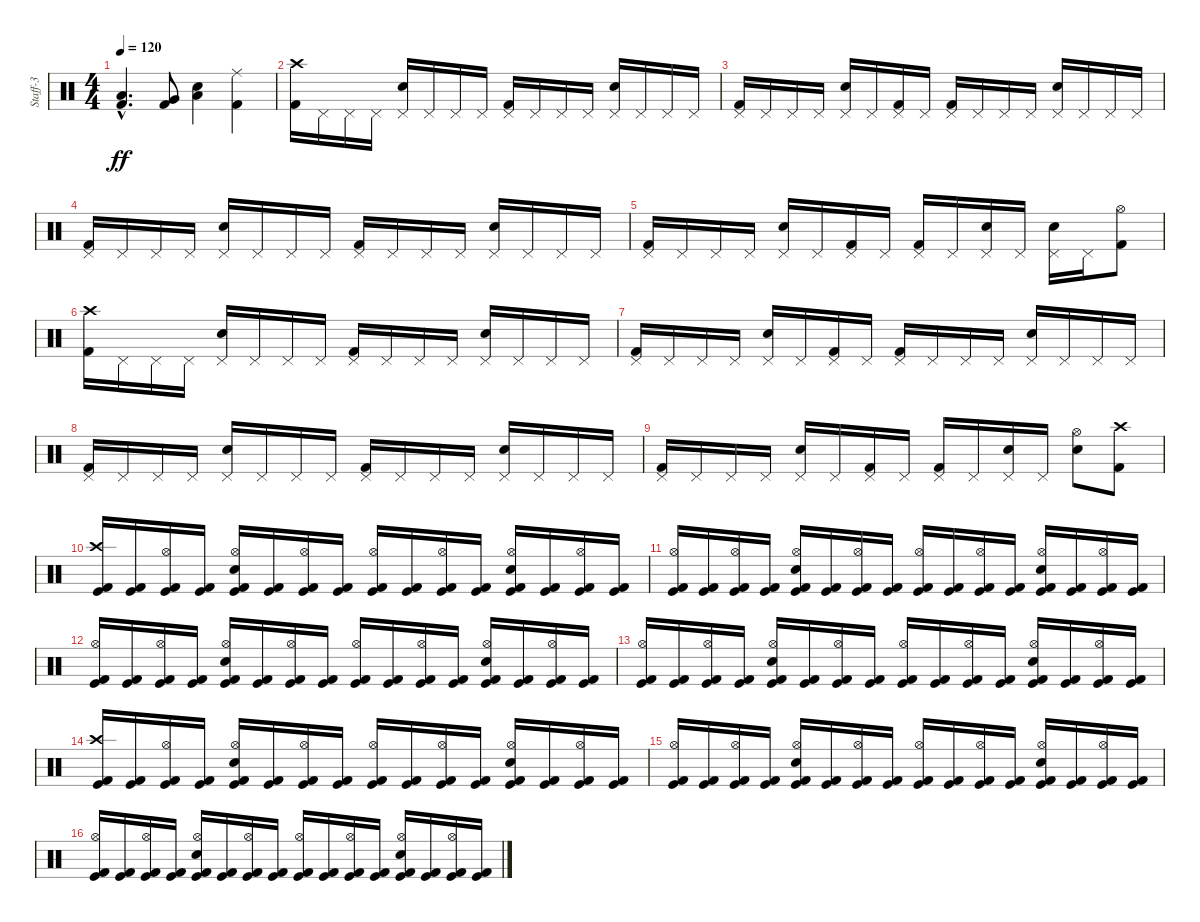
\track ("Staff-3" "Staff-3") {instrument percussion}
\staff {score}
\articulation defaults
\ts (4 4)
\tempo 120
\clef neutral
\ks c
("Kick (hit) 2"{hac} "Low Tom (hit)"{hac}).4{d dy ff balance 8} ("Kick (hit) 2" "Very Low Tom (hit)").8{balance 1} ("Snare (hit) 2" "Low Floor Tom (hit)").4{balance 15} ("Kick (hit) 2" "Ride (middle)").4{balance 1} |
("Kick (hit) 2" "Crash high (hit)").16{balance 8} "Pedal Hi-Hat (hit)".16 "Pedal Hi-Hat (hit)".16 "Pedal Hi-Hat (hit)".16 ("Snare (hit) 2" "Pedal Hi-Hat (hit)").16 "Pedal Hi-Hat (hit)".16 "Pedal Hi-Hat (hit)".16 "Pedal Hi-Hat (hit)".16 ("Kick (hit) 2" "Pedal Hi-Hat (hit)").16 "Pedal Hi-Hat (hit)".16 "Pedal Hi-Hat (hit)".16 "Pedal Hi-Hat (hit)".16 ("Snare (hit) 2" "Pedal Hi-Hat (hit)").16 "Pedal Hi-Hat (hit)".16 "Pedal Hi-Hat (hit)".16 "Pedal Hi-Hat (hit)".16 |
("Kick (hit) 2" "Pedal Hi-Hat (hit)").16 "Pedal Hi-Hat (hit)".16 "Pedal Hi-Hat (hit)".16 "Pedal Hi-Hat (hit)".16 ("Snare (hit) 2" "Pedal Hi-Hat (hit)").16 "Pedal Hi-Hat (hit)".16 ("Kick (hit) 2" "Pedal Hi-Hat (hit)").16 "Pedal Hi-Hat (hit)".16 ("Kick (hit) 2" "Pedal Hi-Hat (hit)").16 "Pedal Hi-Hat (hit)".16 "Pedal Hi-Hat (hit)".16 "Pedal Hi-Hat (hit)".16 ("Snare (hit) 2" "Pedal Hi-Hat (hit)").16 "Pedal Hi-Hat (hit)".16 "Pedal Hi-Hat (hit)".16 "Pedal Hi-Hat (hit)".16 |
("Kick (hit) 2" "Pedal Hi-Hat (hit)").16 "Pedal Hi-Hat (hit)".16 "Pedal Hi-Hat (hit)".16 "Pedal Hi-Hat (hit)".16 ("Snare (hit) 2" "Pedal Hi-Hat (hit)").16 "Pedal Hi-Hat (hit)".16 "Pedal Hi-Hat (hit)".16 "Pedal Hi-Hat (hit)".16 ("Kick (hit) 2" "Pedal Hi-Hat (hit)").16 "Pedal Hi-Hat (hit)".16 "Pedal Hi-Hat (hit)".16 "Pedal Hi-Hat (hit)".16 ("Snare (hit) 2" "Pedal Hi-Hat (hit)").16 "Pedal Hi-Hat (hit)".16 "Pedal Hi-Hat (hit)".16 "Pedal Hi-Hat (hit)".16 |
("Kick (hit) 2" "Pedal Hi-Hat (hit)").16 "Pedal Hi-Hat (hit)".16 "Pedal Hi-Hat (hit)".16 "Pedal Hi-Hat (hit)".16 ("Snare (hit) 2" "Pedal Hi-Hat (hit)").16 "Pedal Hi-Hat (hit)".16 ("Kick (hit) 2" "Pedal Hi-Hat (hit)").16 "Pedal Hi-Hat (hit)".16 ("Kick (hit) 2" "Pedal Hi-Hat (hit)").16 "Pedal Hi-Hat (hit)".16 ("Snare (hit) 2" "Pedal Hi-Hat (hit)").16 "Pedal Hi-Hat (hit)".16 ("Snare (hit) 2" "Pedal Hi-Hat (hit)").16 "Pedal Hi-Hat (hit)".16 ("Kick (hit) 2" "Hi-Hat (open)").8 |
("Kick (hit) 2" "Crash high (hit)").16 "Pedal Hi-Hat (hit)".16 "Pedal Hi-Hat (hit)".16 "Pedal Hi-Hat (hit)".16 ("Snare (hit) 2" "Pedal Hi-Hat (hit)").16 "Pedal Hi-Hat (hit)".16 "Pedal Hi-Hat (hit)".16 "Pedal Hi-Hat (hit)".16 ("Kick (hit) 2" "Pedal Hi-Hat (hit)").16 "Pedal Hi-Hat (hit)".16 "Pedal Hi-Hat (hit)".16 "Pedal Hi-Hat (hit)".16 ("Snare (hit) 2" "Pedal Hi-Hat (hit)").16 "Pedal Hi-Hat (hit)".16 "Pedal Hi-Hat (hit)".16 "Pedal Hi-Hat (hit)".16 |
("Kick (hit) 2" "Pedal Hi-Hat (hit)").16 "Pedal Hi-Hat (hit)".16 "Pedal Hi-Hat (hit)".16 "Pedal Hi-Hat (hit)".16 ("Snare (hit) 2" "Pedal Hi-Hat (hit)").16 "Pedal Hi-Hat (hit)".16 ("Kick (hit) 2" "Pedal Hi-Hat (hit)").16 "Pedal Hi-Hat (hit)".16 ("Kick (hit) 2" "Pedal Hi-Hat (hit)").16 "Pedal Hi-Hat (hit)".16 "Pedal Hi-Hat (hit)".16 "Pedal Hi-Hat (hit)".16 ("Snare (hit) 2" "Pedal Hi-Hat (hit)").16 "Pedal Hi-Hat (hit)".16 "Pedal Hi-Hat (hit)".16 "Pedal Hi-Hat (hit)".16 |
("Kick (hit) 2" "Pedal Hi-Hat (hit)").16 "Pedal Hi-Hat (hit)".16 "Pedal Hi-Hat (hit)".16 "Pedal Hi-Hat (hit)".16 ("Snare (hit) 2" "Pedal Hi-Hat (hit)").16 "Pedal Hi-Hat (hit)".16 "Pedal Hi-Hat (hit)".16 "Pedal Hi-Hat (hit)".16 ("Kick (hit) 2" "Pedal Hi-Hat (hit)").16 "Pedal Hi-Hat (hit)".16 "Pedal Hi-Hat (hit)".16 "Pedal Hi-Hat (hit)".16 ("Snare (hit) 2" "Pedal Hi-Hat (hit)").16 "Pedal Hi-Hat (hit)".16 "Pedal Hi-Hat (hit)".16 "Pedal Hi-Hat (hit)".16 |
("Kick (hit) 2" "Pedal Hi-Hat (hit)").16 "Pedal Hi-Hat (hit)".16 "Pedal Hi-Hat (hit)".16 "Pedal Hi-Hat (hit)".16 ("Snare (hit) 2" "Pedal Hi-Hat (hit)").16 "Pedal Hi-Hat (hit)".16 ("Kick (hit) 2" "Pedal Hi-Hat (hit)").16 "Pedal Hi-Hat (hit)".16 ("Kick (hit) 2" "Pedal Hi-Hat (hit)").16 "Pedal Hi-Hat (hit)".16 ("Snare (hit) 2" "Pedal Hi-Hat (hit)").16 "Pedal Hi-Hat (hit)".16 ("Snare (hit) 2" "Hi-Hat (open)").8 ("Kick (hit) 2" "Crash high (hit)").8 |
("Kick (hit)" "Kick (hit) 2" "Crash high (hit)").16 ("Kick (hit)" "Kick (hit) 2").16 ("Kick (hit)" "Kick (hit) 2" "Hi-Hat (open)").16 ("Kick (hit)" "Kick (hit) 2").16 ("Kick (hit)" "Kick (hit) 2" "Snare (hit) 2" "Hi-Hat (open)").16 ("Kick (hit)" "Kick (hit) 2").16 ("Kick (hit)" "Kick (hit) 2" "Hi-Hat (open)").16 ("Kick (hit)" "Kick (hit) 2").16 ("Kick (hit)" "Kick (hit) 2" "Hi-Hat (open)").16 ("Kick (hit)" "Kick (hit) 2").16 ("Kick (hit)" "Kick (hit) 2" "Hi-Hat (open)").16 ("Kick (hit)" "Kick (hit) 2").16 ("Kick (hit)" "Kick (hit) 2" "Snare (hit) 2" "Hi-Hat (open)").16 ("Kick (hit)" "Kick (hit) 2").16 ("Kick (hit)" "Kick (hit) 2" "Hi-Hat (open)").16 ("Kick (hit)" "Kick (hit) 2").16 |
("Kick (hit)" "Kick (hit) 2" "Hi-Hat (open)").16 ("Kick (hit)" "Kick (hit) 2").16 ("Kick (hit)" "Kick (hit) 2" "Hi-Hat (open)").16 ("Kick (hit)" "Kick (hit) 2").16 ("Kick (hit)" "Kick (hit) 2" "Snare (hit) 2" "Hi-Hat (open)").16 ("Kick (hit)" "Kick (hit) 2").16 ("Kick (hit)" "Kick (hit) 2" "Hi-Hat (open)").16 ("Kick (hit)" "Kick (hit) 2").16 ("Kick (hit)" "Kick (hit) 2" "Hi-Hat (open)").16 ("Kick (hit)" "Kick (hit) 2").16 ("Kick (hit)" "Kick (hit) 2" "Hi-Hat (open)").16 ("Kick (hit)" "Kick (hit) 2").16 ("Kick (hit)" "Kick (hit) 2" "Snare (hit) 2" "Hi-Hat (open)").16 ("Kick (hit)" "Kick (hit) 2").16 ("Kick (hit)" "Kick (hit) 2" "Hi-Hat (open)").16 ("Kick (hit)" "Kick (hit) 2").16 |
("Kick (hit)" "Kick (hit) 2" "Hi-Hat (open)").16 ("Kick (hit)" "Kick (hit) 2").16 ("Kick (hit)" "Kick (hit) 2" "Hi-Hat (open)").16 ("Kick (hit)" "Kick (hit) 2").16 ("Kick (hit)" "Kick (hit) 2" "Snare (hit) 2" "Hi-Hat (open)").16 ("Kick (hit)" "Kick (hit) 2").16 ("Kick (hit)" "Kick (hit) 2" "Hi-Hat (open)").16 ("Kick (hit)" "Kick (hit) 2").16 ("Kick (hit)" "Kick (hit) 2" "Hi-Hat (open)").16 ("Kick (hit)" "Kick (hit) 2").16 ("Kick (hit)" "Kick (hit) 2" "Hi-Hat (open)").16 ("Kick (hit)" "Kick (hit) 2").16 ("Kick (hit)" "Kick (hit) 2" "Snare (hit) 2" "Hi-Hat (open)").16 ("Kick (hit)" "Kick (hit) 2").16 ("Kick (hit)" "Kick (hit) 2" "Hi-Hat (open)").16 ("Kick (hit)" "Kick (hit) 2").16 |
("Kick (hit)" "Kick (hit) 2" "Hi-Hat (open)").16 ("Kick (hit)" "Kick (hit) 2").16 ("Kick (hit)" "Kick (hit) 2" "Hi-Hat (open)").16 ("Kick (hit)" "Kick (hit) 2").16 ("Kick (hit)" "Kick (hit) 2" "Snare (hit) 2" "Hi-Hat (open)").16 ("Kick (hit)" "Kick (hit) 2").16 ("Kick (hit)" "Kick (hit) 2" "Hi-Hat (open)").16 ("Kick (hit)" "Kick (hit) 2").16 ("Kick (hit)" "Kick (hit) 2" "Hi-Hat (open)").16 ("Kick (hit)" "Kick (hit) 2").16 ("Kick (hit)" "Kick (hit) 2" "Hi-Hat (open)").16 ("Kick (hit)" "Kick (hit) 2").16 ("Kick (hit)" "Kick (hit) 2" "Snare (hit) 2" "Hi-Hat (open)").16 ("Kick (hit)" "Kick (hit) 2").16 ("Kick (hit)" "Kick (hit) 2" "Hi-Hat (open)").16 ("Kick (hit)" "Kick (hit) 2").16 |
("Kick (hit)" "Kick (hit) 2" "Crash high (hit)").16 ("Kick (hit)" "Kick (hit) 2").16 ("Kick (hit)" "Kick (hit) 2" "Hi-Hat (open)").16 ("Kick (hit)" "Kick (hit) 2").16 ("Kick (hit)" "Kick (hit) 2" "Snare (hit) 2" "Hi-Hat (open)").16 ("Kick (hit)" "Kick (hit) 2").16 ("Kick (hit)" "Kick (hit) 2" "Hi-Hat (open)").16 ("Kick (hit)" "Kick (hit) 2").16 ("Kick (hit)" "Kick (hit) 2" "Hi-Hat (open)").16 ("Kick (hit)" "Kick (hit) 2").16 ("Kick (hit)" "Kick (hit) 2" "Hi-Hat (open)").16 ("Kick (hit)" "Kick (hit) 2").16 ("Kick (hit)" "Kick (hit) 2" "Snare (hit) 2" "Hi-Hat (open)").16 ("Kick (hit)" "Kick (hit) 2").16 ("Kick (hit)" "Kick (hit) 2" "Hi-Hat (open)").16 ("Kick (hit)" "Kick (hit) 2").16 |
("Kick (hit)" "Kick (hit) 2" "Hi-Hat (open)").16 ("Kick (hit)" "Kick (hit) 2").16 ("Kick (hit)" "Kick (hit) 2" "Hi-Hat (open)").16 ("Kick (hit)" "Kick (hit) 2").16 ("Kick (hit)" "Kick (hit) 2" "Snare (hit) 2" "Hi-Hat (open)").16 ("Kick (hit)" "Kick (hit) 2").16 ("Kick (hit)" "Kick (hit) 2" "Hi-Hat (open)").16 ("Kick (hit)" "Kick (hit) 2").16 ("Kick (hit)" "Kick (hit) 2" "Hi-Hat (open)").16 ("Kick (hit)" "Kick (hit) 2").16 ("Kick (hit)" "Kick (hit) 2" "Hi-Hat (open)").16 ("Kick (hit)" "Kick (hit) 2").16 ("Kick (hit)" "Kick (hit) 2" "Snare (hit) 2" "Hi-Hat (open)").16 ("Kick (hit)" "Kick (hit) 2").16 ("Kick (hit)" "Kick (hit) 2" "Hi-Hat (open)").16 ("Kick (hit)" "Kick (hit) 2").16 |
("Kick (hit)" "Kick (hit) 2" "Hi-Hat (open)").16 ("Kick (hit)" "Kick (hit) 2").16 ("Kick (hit)" "Kick (hit) 2" "Hi-Hat (open)").16 ("Kick (hit)" "Kick (hit) 2").16 ("Kick (hit)" "Kick (hit) 2" "Snare (hit) 2" "Hi-Hat (open)").16 ("Kick (hit)" "Kick (hit) 2").16 ("Kick (hit)" "Kick (hit) 2" "Hi-Hat (open)").16 ("Kick (hit)" "Kick (hit) 2").16 ("Kick (hit)" "Kick (hit) 2" "Hi-Hat (open)").16 ("Kick (hit)" "Kick (hit) 2").16 ("Kick (hit)" "Kick (hit) 2" "Hi-Hat (open)").16 ("Kick (hit)" "Kick (hit) 2").16 ("Kick (hit)" "Kick (hit) 2" "Snare (hit) 2" "Hi-Hat (open)").16 ("Kick (hit)" "Kick (hit) 2").16 ("Kick (hit)" "Kick (hit) 2" "Hi-Hat (open)").16 ("Kick (hit)" "Kick (hit) 2").16
